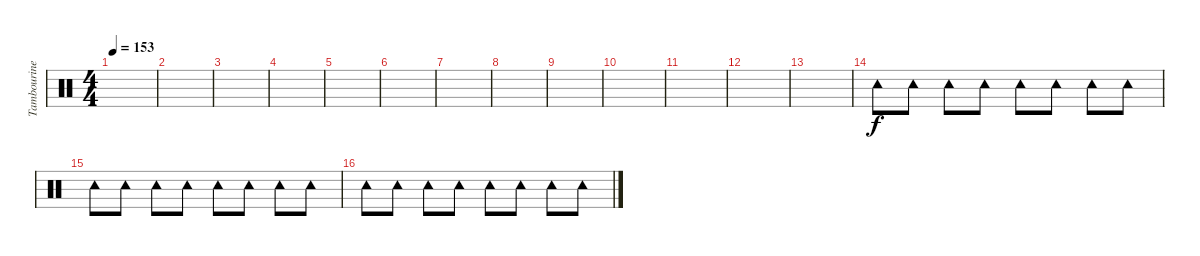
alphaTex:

\track ("Tambourine" "Tambourine") {instrument percussion}
\staff {score}
\articulation defaults
\ts (4 4)
\tempo 153
\clef neutral
\ks c
|
|
|
|
|
|
|
|
|
|
|
|
|
"Tambourine (hit)".8 "Tambourine (hit)".8 "Tambourine (hit)".8 "Tambourine (hit)".8 "Tambourine (hit)".8 "Tambourine (hit)".8 "Tambourine (hit)".8 "Tambourine (hit)".8 |
"Tambourine (hit)".8 "Tambourine (hit)".8 "Tambourine (hit)".8 "Tambourine (hit)".8 "Tambourine (hit)".8 "Tambourine (hit)".8 "Tambourine (hit)".8 "Tambourine (hit)".8 |
"Tambourine (hit)".8 "Tambourine (hit)".8 "Tambourine (hit)".8 "Tambourine (hit)".8 "Tambourine (hit)".8 "Tambourine (hit)".8 "Tambourine (hit)".8 "Tambourine (hit)".8
